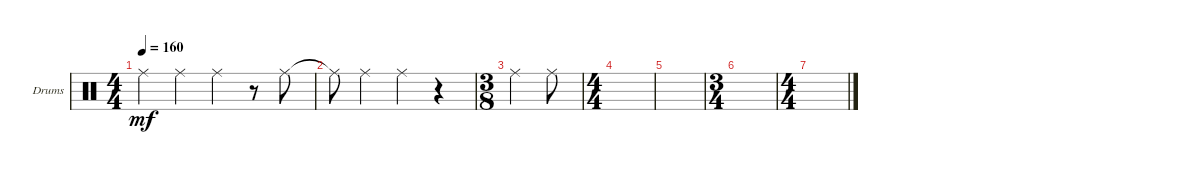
\defaultSystemsLayout 4
\bracketExtendMode groupsimilarinstruments
\firstSystemTrackNameOrientation horizontal
\otherSystemsTrackNameOrientation horizontal
\track ("Drumkit" "Drums") {instrument percussion}
\staff {score}
\articulation defaults
\ts (4 4)
\tempo 160
\clef neutral
\scale
0.391473
\ks c "Ride (middle)".4{dy mf} "Ride (middle)".4 "Ride (middle)".4
r.8 "Ride (middle)".8 |
\scale
0.217054 "Ride (middle)"{t}.8 "Ride (middle)".4 "Ride (middle)".4 r.4 |
\ts (3 8)
\scale
0.391473 "Ride (middle)".4 "Ride (middle)".8 |
\ts (4 4)
\scale
0.391473 |
\scale
0.217054 |
\ts (3 4)
\scale
0.391473 |
\ts (4 4)
\scale
0.474178 |
\scale
0.262911 |
\scale
0.262911
